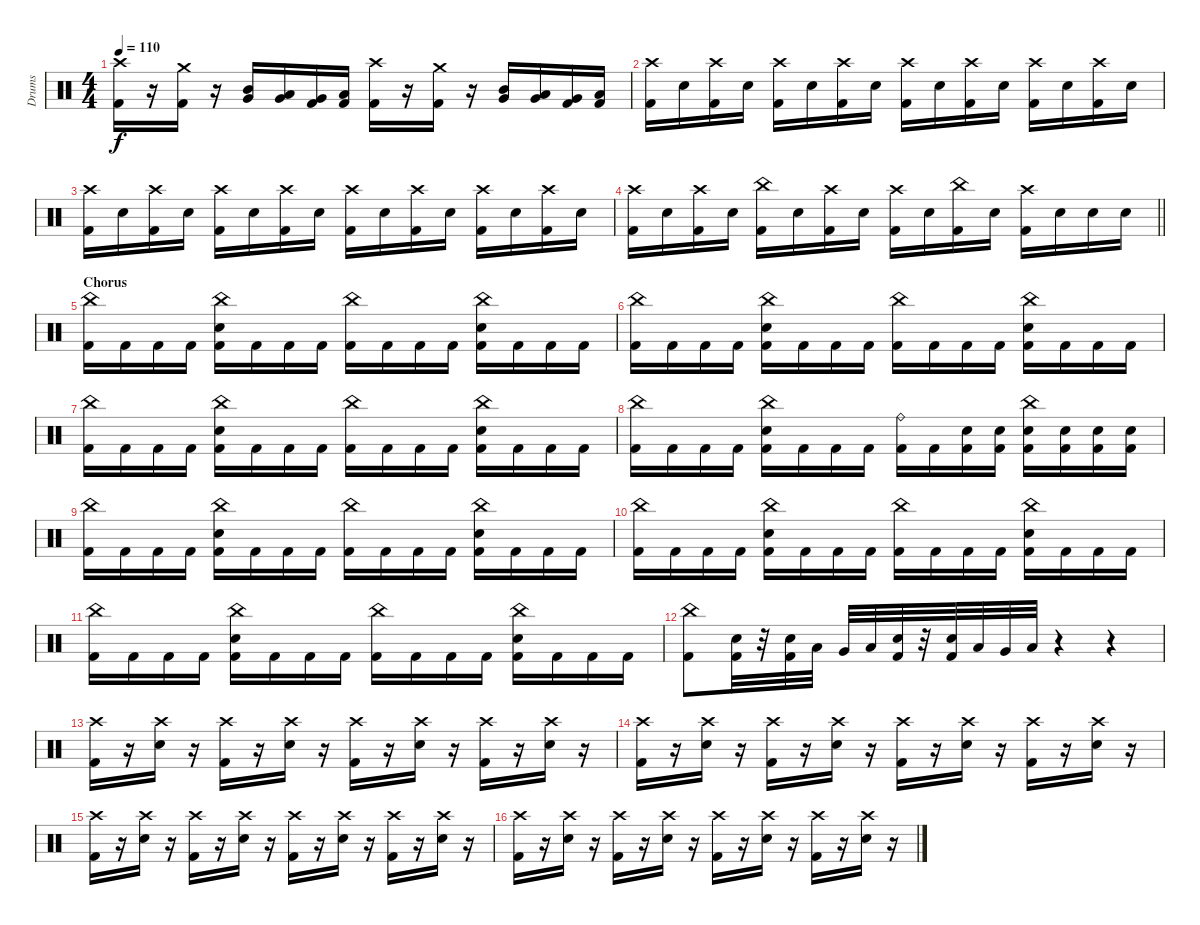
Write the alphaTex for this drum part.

\track ("Drums" "Drums") {instrument percussion}
\staff {score}
\articulation defaults
\ts (4 4)
\tempo 110
\clef neutral
\ks c
("Crash high (hit)" "Kick (hit) 2").16{dy f} r.16 ("Crash medium (hit)" "Kick (hit) 2").16 r.16 ("Mid Tom (hit)" "Very Low Tom (hit)").16 ("Low Tom (hit)" "Very Low Tom (hit)").16 ("Very Low Tom (hit)" "Kick (hit) 2").16 ("Low Floor Tom (hit)" "Kick (hit) 2").16 ("Crash high (hit)" "Kick (hit) 2").16 r.16 ("Crash medium (hit)" "Kick (hit) 2").16 r.16 ("Mid Tom (hit)" "Very Low Tom (hit)").16 ("Low Tom (hit)" "Very Low Tom (hit)").16 ("Very Low Tom (hit)" "Kick (hit) 2").16 ("Low Floor Tom (hit)" "Kick (hit) 2").16 |
("Crash high (hit)" "Kick (hit) 2").16 "Electric Snare (hit)".16 ("Crash high (hit)" "Kick (hit) 2").16 "Electric Snare (hit)".16 ("Crash high (hit)" "Kick (hit) 2").16 "Electric Snare (hit)".16 ("Crash high (hit)" "Kick (hit) 2").16 "Electric Snare (hit)".16 ("Crash high (hit)" "Kick (hit) 2").16 "Electric Snare (hit)".16 ("Crash high (hit)" "Kick (hit) 2").16 "Electric Snare (hit)".16 ("Crash high (hit)" "Kick (hit) 2").16 "Electric Snare (hit)".16 ("Crash high (hit)" "Kick (hit) 2").16 "Electric Snare (hit)".16 |
("Crash high (hit)" "Kick (hit) 2").16 "Electric Snare (hit)".16 ("Crash high (hit)" "Kick (hit) 2").16 "Electric Snare (hit)".16 ("Crash high (hit)" "Kick (hit) 2").16 "Electric Snare (hit)".16 ("Crash high (hit)" "Kick (hit) 2").16 "Electric Snare (hit)".16 ("Crash high (hit)" "Kick (hit) 2").16 "Electric Snare (hit)".16 ("Crash high (hit)" "Kick (hit) 2").16 "Electric Snare (hit)".16 ("Crash high (hit)" "Kick (hit) 2").16 "Electric Snare (hit)".16 ("Crash high (hit)" "Kick (hit) 2").16 "Electric Snare (hit)".16 |
\barLineRight lightlight
("Crash high (hit)" "Kick (hit) 2").16 "Electric Snare (hit)".16 ("Crash high (hit)" "Kick (hit) 2").16 "Electric Snare (hit)".16 ("China (hit)" "Kick (hit) 2").16 "Electric Snare (hit)".16 ("Crash high (hit)" "Kick (hit) 2").16 "Electric Snare (hit)".16 ("Crash high (hit)" "Kick (hit) 2").16 "Electric Snare (hit)".16 ("China (hit)" "Kick (hit) 2").16 "Electric Snare (hit)".16 ("Crash high (hit)" "Kick (hit) 2").16 "Electric Snare (hit)".16 "Electric Snare (hit)".16 "Electric Snare (hit)".16 |
\section ("" "Chorus")
("China (hit)" "Kick (hit) 2").16 "Kick (hit) 2".16 "Kick (hit) 2".16 "Kick (hit) 2".16 ("China (hit)" "Electric Snare (hit)" "Kick (hit) 2").16 "Kick (hit) 2".16 "Kick (hit) 2".16 "Kick (hit) 2".16 ("China (hit)" "Kick (hit) 2").16 "Kick (hit) 2".16 "Kick (hit) 2".16 "Kick (hit) 2".16 ("China (hit)" "Electric Snare (hit)" "Kick (hit) 2").16 "Kick (hit) 2".16 "Kick (hit) 2".16 "Kick (hit) 2".16 |
("China (hit)" "Kick (hit) 2").16 "Kick (hit) 2".16 "Kick (hit) 2".16 "Kick (hit) 2".16 ("China (hit)" "Electric Snare (hit)" "Kick (hit) 2").16 "Kick (hit) 2".16 "Kick (hit) 2".16 "Kick (hit) 2".16 ("China (hit)" "Kick (hit) 2").16 "Kick (hit) 2".16 "Kick (hit) 2".16 "Kick (hit) 2".16 ("China (hit)" "Electric Snare (hit)" "Kick (hit) 2").16 "Kick (hit) 2".16 "Kick (hit) 2".16 "Kick (hit) 2".16 |
("China (hit)" "Kick (hit) 2").16 "Kick (hit) 2".16 "Kick (hit) 2".16 "Kick (hit) 2".16 ("China (hit)" "Electric Snare (hit)" "Kick (hit) 2").16 "Kick (hit) 2".16 "Kick (hit) 2".16 "Kick (hit) 2".16 ("China (hit)" "Kick (hit) 2").16 "Kick (hit) 2".16 "Kick (hit) 2".16 "Kick (hit) 2".16 ("China (hit)" "Electric Snare (hit)" "Kick (hit) 2").16 "Kick (hit) 2".16 "Kick (hit) 2".16 "Kick (hit) 2".16 |
("China (hit)" "Kick (hit) 2").16 "Kick (hit) 2".16 "Kick (hit) 2".16 "Kick (hit) 2".16 ("China (hit)" "Electric Snare (hit)" "Kick (hit) 2").16 "Kick (hit) 2".16 "Kick (hit) 2".16 "Kick (hit) 2".16 ("Ride (bell)" "Kick (hit) 2").16 "Kick (hit) 2".16 ("Electric Snare (hit)" "Kick (hit) 2").16 ("Electric Snare (hit)" "Kick (hit) 2").16 ("China (hit)" "Electric Snare (hit)" "Kick (hit) 2").16 ("Electric Snare (hit)" "Kick (hit) 2").16 ("Electric Snare (hit)" "Kick (hit) 2").16 ("Electric Snare (hit)" "Kick (hit) 2").16 |
("China (hit)" "Kick (hit) 2").16 "Kick (hit) 2".16 "Kick (hit) 2".16 "Kick (hit) 2".16 ("China (hit)" "Electric Snare (hit)" "Kick (hit) 2").16 "Kick (hit) 2".16 "Kick (hit) 2".16 "Kick (hit) 2".16 ("China (hit)" "Kick (hit) 2").16 "Kick (hit) 2".16 "Kick (hit) 2".16 "Kick (hit) 2".16 ("China (hit)" "Electric Snare (hit)" "Kick (hit) 2").16 "Kick (hit) 2".16 "Kick (hit) 2".16 "Kick (hit) 2".16 |
("China (hit)" "Kick (hit) 2").16 "Kick (hit) 2".16 "Kick (hit) 2".16 "Kick (hit) 2".16 ("China (hit)" "Electric Snare (hit)" "Kick (hit) 2").16 "Kick (hit) 2".16 "Kick (hit) 2".16 "Kick (hit) 2".16 ("China (hit)" "Kick (hit) 2").16 "Kick (hit) 2".16 "Kick (hit) 2".16 "Kick (hit) 2".16 ("China (hit)" "Electric Snare (hit)" "Kick (hit) 2").16 "Kick (hit) 2".16 "Kick (hit) 2".16 "Kick (hit) 2".16 |
("China (hit)" "Kick (hit) 2").16 "Kick (hit) 2".16 "Kick (hit) 2".16 "Kick (hit) 2".16 ("China (hit)" "Electric Snare (hit)" "Kick (hit) 2").16 "Kick (hit) 2".16 "Kick (hit) 2".16 "Kick (hit) 2".16 ("China (hit)" "Kick (hit) 2").16 "Kick (hit) 2".16 "Kick (hit) 2".16 "Kick (hit) 2".16 ("China (hit)" "Electric Snare (hit)" "Kick (hit) 2").16 "Kick (hit) 2".16 "Kick (hit) 2".16 "Kick (hit) 2".16 |
("China (hit)" "Kick (hit) 2").8 ("Electric Snare (hit)" "Kick (hit) 2").32 r.32 ("Electric Snare (hit)" "Kick (hit) 2").32 "Low Tom (hit)".32 "Very Low Tom (hit)".32 "Low Floor Tom (hit)".32 ("Electric Snare (hit)" "Kick (hit) 2").32 r.32 ("Electric Snare (hit)" "Kick (hit) 2").32 "Low Tom (hit)".32 "Very Low Tom (hit)".32 "Low Floor Tom (hit)".32 r.4 r.4 |
("Crash high (hit)" "Kick (hit) 2").16 r.16 ("Crash high (hit)" "Electric Snare (hit)").16 r.16 ("Crash high (hit)" "Kick (hit) 2").16 r.16 ("Crash high (hit)" "Electric Snare (hit)").16 r.16 ("Crash high (hit)" "Kick (hit) 2").16 r.16 ("Crash high (hit)" "Electric Snare (hit)").16 r.16 ("Crash high (hit)" "Kick (hit) 2").16 r.16 ("Crash high (hit)" "Electric Snare (hit)").16 r.16 |
("Crash high (hit)" "Kick (hit) 2").16 r.16 ("Crash high (hit)" "Electric Snare (hit)").16 r.16 ("Crash high (hit)" "Kick (hit) 2").16 r.16 ("Crash high (hit)" "Electric Snare (hit)").16 r.16 ("Crash high (hit)" "Kick (hit) 2").16 r.16 ("Crash high (hit)" "Electric Snare (hit)").16 r.16 ("Crash high (hit)" "Kick (hit) 2").16 r.16 ("Crash high (hit)" "Electric Snare (hit)").16 r.16 |
("Crash high (hit)" "Kick (hit) 2").16 r.16 ("Crash high (hit)" "Electric Snare (hit)").16 r.16 ("Crash high (hit)" "Kick (hit) 2").16 r.16 ("Crash high (hit)" "Electric Snare (hit)").16 r.16 ("Crash high (hit)" "Kick (hit) 2").16 r.16 ("Crash high (hit)" "Electric Snare (hit)").16 r.16 ("Crash high (hit)" "Kick (hit) 2").16 r.16 ("Crash high (hit)" "Electric Snare (hit)").16 r.16 |
("Crash high (hit)" "Kick (hit) 2").16 r.16 ("Crash high (hit)" "Electric Snare (hit)").16 r.16 ("Crash high (hit)" "Kick (hit) 2").16 r.16 ("Crash high (hit)" "Electric Snare (hit)").16 r.16 ("Crash high (hit)" "Kick (hit) 2").16 r.16 ("Crash high (hit)" "Electric Snare (hit)").16 r.16 ("Crash high (hit)" "Kick (hit) 2").16 r.16 ("Crash high (hit)" "Electric Snare (hit)").16 r.16
